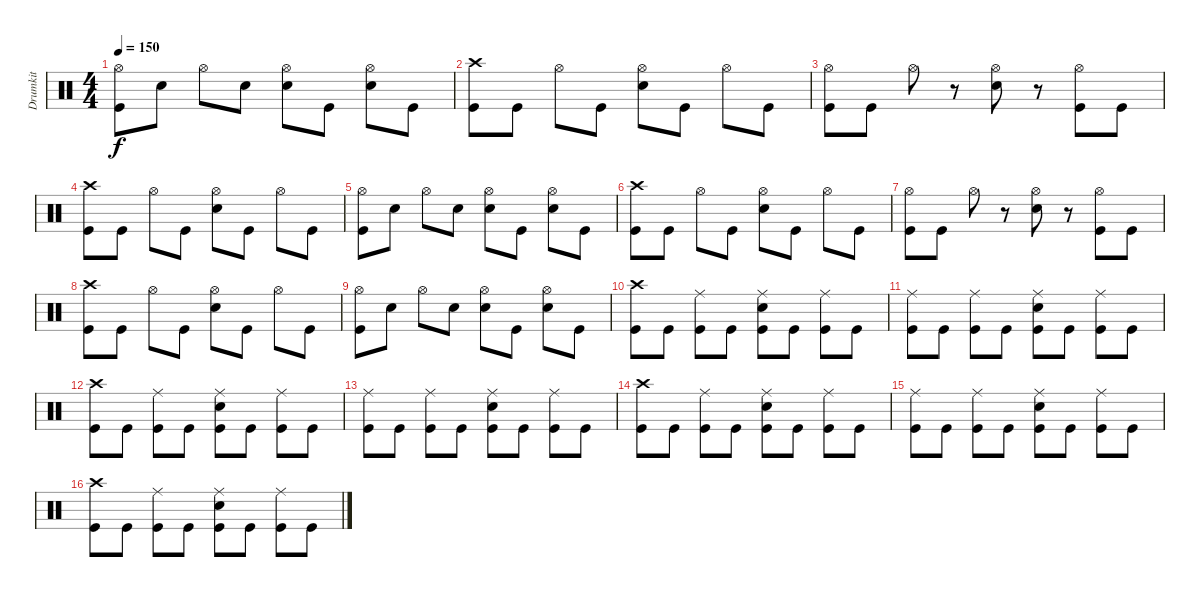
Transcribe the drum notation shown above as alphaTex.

\track ("Drumkit" "Drumkit") {instrument percussion}
\staff {score}
\articulation defaults
\ts (4 4)
\tempo 150
\clef neutral
\ks c
("Kick (hit)" "Hi-Hat (open)").8{dy f} "Snare (hit) 2".8 "Hi-Hat (open)".8 "Snare (hit) 2".8 ("Snare (hit) 2" "Hi-Hat (open)").8 "Kick (hit)".8 ("Snare (hit) 2" "Hi-Hat (open)").8 "Kick (hit)".8 |
("Kick (hit)" "Crash high (hit)").8 "Kick (hit)".8 "Hi-Hat (open)".8 "Kick (hit)".8 ("Snare (hit) 2" "Hi-Hat (open)").8 "Kick (hit)".8 "Hi-Hat (open)".8 "Kick (hit)".8 |
("Kick (hit)" "Hi-Hat (open)").8 "Kick (hit)".8 "Hi-Hat (open)".8 r.8 ("Snare (hit) 2" "Hi-Hat (open)").8 r.8 ("Kick (hit)" "Hi-Hat (open)").8 "Kick (hit)".8 |
("Kick (hit)" "Crash high (hit)").8 "Kick (hit)".8 "Hi-Hat (open)".8 "Kick (hit)".8 ("Snare (hit) 2" "Hi-Hat (open)").8 "Kick (hit)".8 "Hi-Hat (open)".8 "Kick (hit)".8 |
("Kick (hit)" "Hi-Hat (open)").8 "Snare (hit) 2".8 "Hi-Hat (open)".8 "Snare (hit) 2".8 ("Snare (hit) 2" "Hi-Hat (open)").8 "Kick (hit)".8 ("Snare (hit) 2" "Hi-Hat (open)").8 "Kick (hit)".8 |
("Kick (hit)" "Crash high (hit)").8 "Kick (hit)".8 "Hi-Hat (open)".8 "Kick (hit)".8 ("Snare (hit) 2" "Hi-Hat (open)").8 "Kick (hit)".8 "Hi-Hat (open)".8 "Kick (hit)".8 |
("Kick (hit)" "Hi-Hat (open)").8 "Kick (hit)".8 "Hi-Hat (open)".8 r.8 ("Snare (hit) 2" "Hi-Hat (open)").8 r.8 ("Kick (hit)" "Hi-Hat (open)").8 "Kick (hit)".8 |
("Kick (hit)" "Crash high (hit)").8 "Kick (hit)".8 "Hi-Hat (open)".8 "Kick (hit)".8 ("Snare (hit) 2" "Hi-Hat (open)").8 "Kick (hit)".8 "Hi-Hat (open)".8 "Kick (hit)".8 |
("Kick (hit)" "Hi-Hat (open)").8 "Snare (hit) 2".8 "Hi-Hat (open)".8 "Snare (hit) 2".8 ("Snare (hit) 2" "Hi-Hat (open)").8 "Kick (hit)".8 ("Snare (hit) 2" "Hi-Hat (open)").8 "Kick (hit)".8 |
("Kick (hit)" "Crash high (hit)").8 "Kick (hit)".8 ("Kick (hit)" "Ride (middle)").8 "Kick (hit)".8 ("Kick (hit)" "Snare (hit) 2" "Ride (middle)").8 "Kick (hit)".8 ("Kick (hit)" "Ride (middle)").8 "Kick (hit)".8 |
("Kick (hit)" "Ride (middle)").8 "Kick (hit)".8 ("Kick (hit)" "Ride (middle)").8 "Kick (hit)".8 ("Kick (hit)" "Snare (hit) 2" "Ride (middle)").8 "Kick (hit)".8 ("Kick (hit)" "Ride (middle)").8 "Kick (hit)".8 |
("Kick (hit)" "Crash high (hit)").8 "Kick (hit)".8 ("Kick (hit)" "Ride (middle)").8 "Kick (hit)".8 ("Kick (hit)" "Snare (hit) 2" "Ride (middle)").8 "Kick (hit)".8 ("Kick (hit)" "Ride (middle)").8 "Kick (hit)".8 |
("Kick (hit)" "Ride (middle)").8 "Kick (hit)".8 ("Kick (hit)" "Ride (middle)").8 "Kick (hit)".8 ("Kick (hit)" "Snare (hit) 2" "Ride (middle)").8 "Kick (hit)".8 ("Kick (hit)" "Ride (middle)").8 "Kick (hit)".8 |
("Kick (hit)" "Crash high (hit)").8 "Kick (hit)".8 ("Kick (hit)" "Ride (middle)").8 "Kick (hit)".8 ("Kick (hit)" "Snare (hit) 2" "Ride (middle)").8 "Kick (hit)".8 ("Kick (hit)" "Ride (middle)").8 "Kick (hit)".8 |
("Kick (hit)" "Ride (middle)").8 "Kick (hit)".8 ("Kick (hit)" "Ride (middle)").8 "Kick (hit)".8 ("Kick (hit)" "Snare (hit) 2" "Ride (middle)").8 "Kick (hit)".8 ("Kick (hit)" "Ride (middle)").8 "Kick (hit)".8 |
("Kick (hit)" "Crash high (hit)").8 "Kick (hit)".8 ("Kick (hit)" "Ride (middle)").8 "Kick (hit)".8 ("Kick (hit)" "Snare (hit) 2" "Ride (middle)").8 "Kick (hit)".8 ("Kick (hit)" "Ride (middle)").8 "Kick (hit)".8
